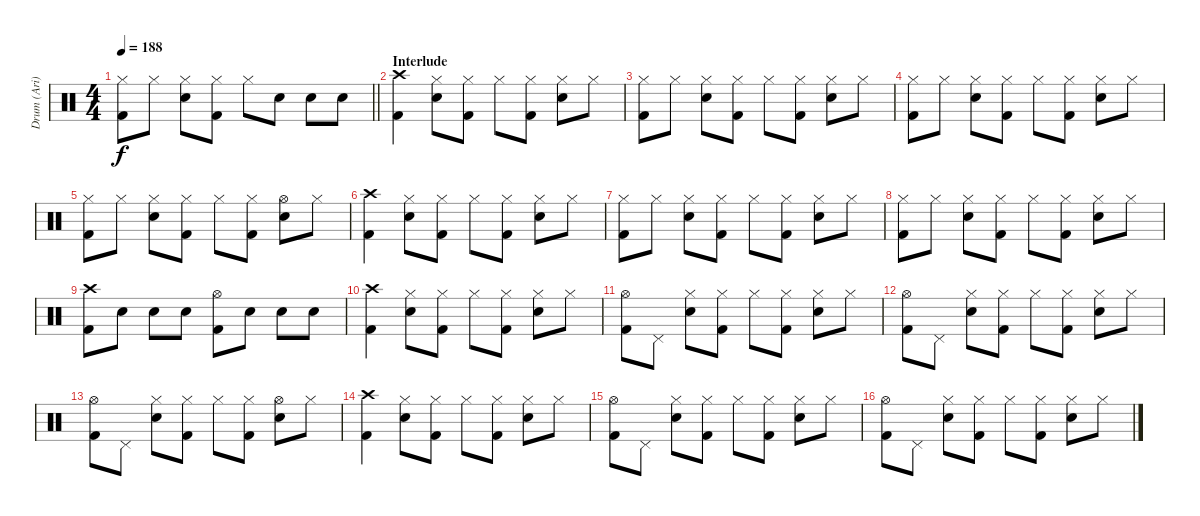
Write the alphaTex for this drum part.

\track ("Drum (Ari)" "Drum (Ari)") {instrument percussion}
\staff {score}
\articulation defaults
\ts (4 4)
\tempo 188
\clef neutral
\barLineRight lightlight
\ks c
("Hi-Hat (closed)" "Kick (hit) 2").8{dy f} "Hi-Hat (closed)".8 ("Hi-Hat (closed)" "Electric Snare (hit)").8 ("Hi-Hat (closed)" "Kick (hit) 2").8 "Hi-Hat (closed)".8 "Electric Snare (hit)".8 "Electric Snare (hit)".8 "Electric Snare (hit)".8 |
\section ("" "Interlude")
("Crash high (hit)" "Kick (hit) 2").4 ("Hi-Hat (closed)" "Electric Snare (hit)").8 ("Hi-Hat (closed)" "Kick (hit) 2").8 "Hi-Hat (closed)".8 ("Hi-Hat (closed)" "Kick (hit) 2").8 ("Hi-Hat (closed)" "Electric Snare (hit)").8 "Hi-Hat (closed)".8 |
("Hi-Hat (closed)" "Kick (hit) 2").8 "Hi-Hat (closed)".8 ("Hi-Hat (closed)" "Electric Snare (hit)").8 ("Hi-Hat (closed)" "Kick (hit) 2").8 "Hi-Hat (closed)".8 ("Hi-Hat (closed)" "Kick (hit) 2").8 ("Hi-Hat (closed)" "Electric Snare (hit)").8 "Hi-Hat (closed)".8 |
("Hi-Hat (closed)" "Kick (hit) 2").8 "Hi-Hat (closed)".8 ("Hi-Hat (closed)" "Electric Snare (hit)").8 ("Hi-Hat (closed)" "Kick (hit) 2").8 "Hi-Hat (closed)".8 ("Hi-Hat (closed)" "Kick (hit) 2").8 ("Hi-Hat (closed)" "Electric Snare (hit)").8 "Hi-Hat (closed)".8 |
("Hi-Hat (closed)" "Kick (hit) 2").8 "Hi-Hat (closed)".8 ("Hi-Hat (closed)" "Electric Snare (hit)").8 ("Hi-Hat (closed)" "Kick (hit) 2").8 "Hi-Hat (closed)".8 ("Hi-Hat (closed)" "Kick (hit) 2").8 ("Hi-Hat (open)" "Electric Snare (hit)").8 "Hi-Hat (closed)".8 |
("Crash high (hit)" "Kick (hit) 2").4 ("Hi-Hat (closed)" "Electric Snare (hit)").8 ("Hi-Hat (closed)" "Kick (hit) 2").8 "Hi-Hat (closed)".8 ("Hi-Hat (closed)" "Kick (hit) 2").8 ("Hi-Hat (closed)" "Electric Snare (hit)").8 "Hi-Hat (closed)".8 |
("Hi-Hat (closed)" "Kick (hit) 2").8 "Hi-Hat (closed)".8 ("Hi-Hat (closed)" "Electric Snare (hit)").8 ("Hi-Hat (closed)" "Kick (hit) 2").8 "Hi-Hat (closed)".8 ("Hi-Hat (closed)" "Kick (hit) 2").8 ("Hi-Hat (closed)" "Electric Snare (hit)").8 "Hi-Hat (closed)".8 |
("Hi-Hat (closed)" "Kick (hit) 2").8 "Hi-Hat (closed)".8 ("Hi-Hat (closed)" "Electric Snare (hit)").8 ("Hi-Hat (closed)" "Kick (hit) 2").8 "Hi-Hat (closed)".8 ("Hi-Hat (closed)" "Kick (hit) 2").8 ("Hi-Hat (closed)" "Electric Snare (hit)").8 "Hi-Hat (closed)".8 |
("Crash high (hit)" "Kick (hit) 2").8 "Electric Snare (hit)".8 "Electric Snare (hit)".8 "Electric Snare (hit)".8 ("Hi-Hat (open)" "Kick (hit) 2").8 "Electric Snare (hit)".8 "Electric Snare (hit)".8 "Electric Snare (hit)".8 |
("Crash high (hit)" "Kick (hit) 2").4 ("Hi-Hat (closed)" "Electric Snare (hit)").8 ("Hi-Hat (closed)" "Kick (hit) 2").8 "Hi-Hat (closed)".8 ("Hi-Hat (closed)" "Kick (hit) 2").8 ("Hi-Hat (closed)" "Electric Snare (hit)").8 "Hi-Hat (closed)".8 |
("Hi-Hat (open)" "Kick (hit) 2").8 "Pedal Hi-Hat (hit)".8 ("Hi-Hat (closed)" "Electric Snare (hit)").8 ("Hi-Hat (closed)" "Kick (hit) 2").8 "Hi-Hat (closed)".8 ("Hi-Hat (closed)" "Kick (hit) 2").8 ("Hi-Hat (closed)" "Electric Snare (hit)").8 "Hi-Hat (closed)".8 |
("Hi-Hat (open)" "Kick (hit) 2").8 "Pedal Hi-Hat (hit)".8 ("Hi-Hat (closed)" "Electric Snare (hit)").8 ("Hi-Hat (closed)" "Kick (hit) 2").8 "Hi-Hat (closed)".8 ("Hi-Hat (closed)" "Kick (hit) 2").8 ("Hi-Hat (closed)" "Electric Snare (hit)").8 "Hi-Hat (closed)".8 |
("Hi-Hat (open)" "Kick (hit) 2").8 "Pedal Hi-Hat (hit)".8 ("Hi-Hat (closed)" "Electric Snare (hit)").8 ("Hi-Hat (closed)" "Kick (hit) 2").8 "Hi-Hat (closed)".8 ("Hi-Hat (closed)" "Kick (hit) 2").8 ("Hi-Hat (open)" "Electric Snare (hit)").8 "Hi-Hat (closed)".8 |
("Crash high (hit)" "Kick (hit) 2").4 ("Hi-Hat (closed)" "Electric Snare (hit)").8 ("Hi-Hat (closed)" "Kick (hit) 2").8 "Hi-Hat (closed)".8 ("Hi-Hat (closed)" "Kick (hit) 2").8 ("Hi-Hat (closed)" "Electric Snare (hit)").8 "Hi-Hat (closed)".8 |
("Hi-Hat (open)" "Kick (hit) 2").8 "Pedal Hi-Hat (hit)".8 ("Hi-Hat (closed)" "Electric Snare (hit)").8 ("Hi-Hat (closed)" "Kick (hit) 2").8 "Hi-Hat (closed)".8 ("Hi-Hat (closed)" "Kick (hit) 2").8 ("Hi-Hat (closed)" "Electric Snare (hit)").8 "Hi-Hat (closed)".8 |
("Hi-Hat (open)" "Kick (hit) 2").8 "Pedal Hi-Hat (hit)".8 ("Hi-Hat (closed)" "Electric Snare (hit)").8 ("Hi-Hat (closed)" "Kick (hit) 2").8 "Hi-Hat (closed)".8 ("Hi-Hat (closed)" "Kick (hit) 2").8 ("Hi-Hat (closed)" "Electric Snare (hit)").8 "Hi-Hat (closed)".8
